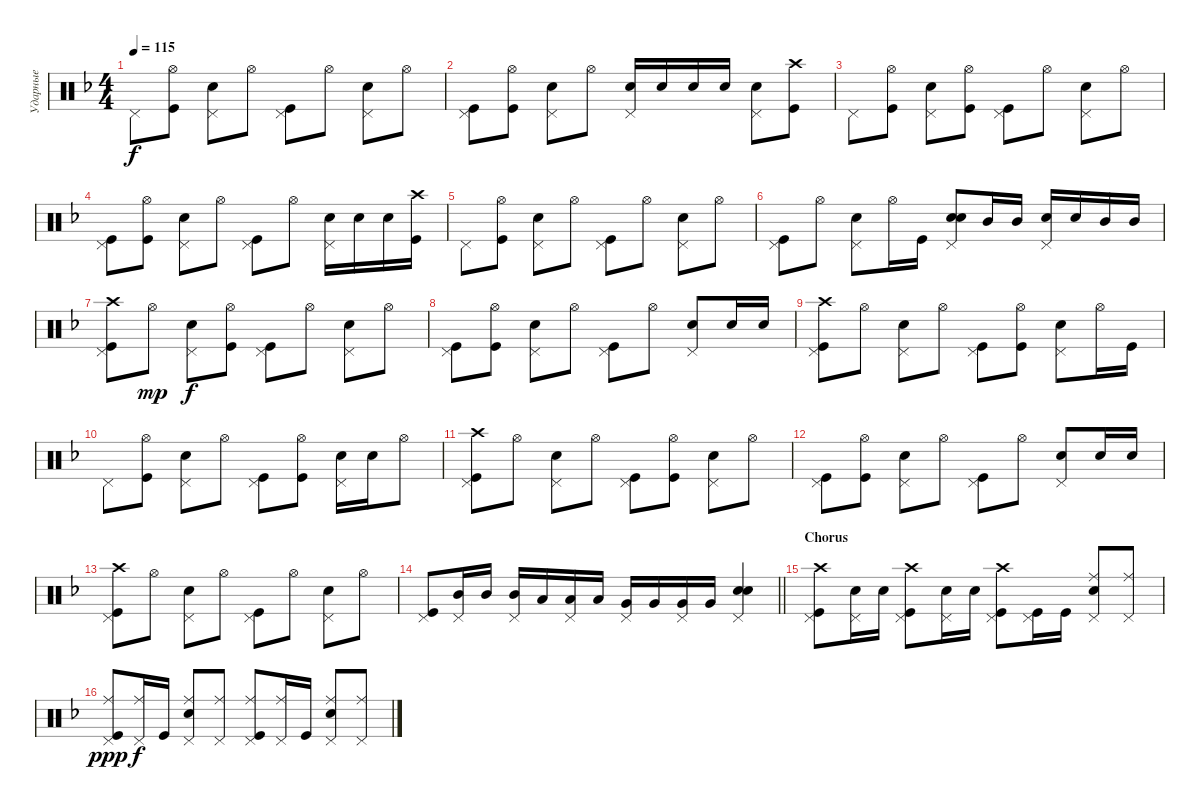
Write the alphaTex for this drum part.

\track ("Ударные" "Ударные") {instrument percussion}
\staff {score}
\articulation defaults
\ts (4 4)
\tempo 115
\clef neutral
\ks dminor "Pedal Hi-Hat (hit)".8{dy f}
("Hi-Hat (open)" "Kick (hit)").8 ("Snare (hit) 2" "Pedal Hi-Hat (hit)").8 "Hi-Hat (open)".8 ("Kick (hit)" "Pedal Hi-Hat (hit)").8 "Hi-Hat (open)".8 ("Snare (hit) 2" "Pedal Hi-Hat (hit)").8 "Hi-Hat (open)".8 |
("Kick (hit)" "Pedal Hi-Hat (hit)").8 ("Kick (hit)" "Hi-Hat (open)").8 ("Snare (hit) 2" "Pedal Hi-Hat (hit)").8 "Hi-Hat (open)".8 ("Snare (hit) 2" "Pedal Hi-Hat (hit)").16 "Snare (hit) 2".16 "Snare (hit) 2".16 "Snare (hit) 2".16 ("Snare (hit) 2" "Pedal Hi-Hat (hit)").8 ("Kick (hit)" "Crash high (hit)").8 |
"Pedal Hi-Hat (hit)".8 ("Kick (hit)" "Hi-Hat (open)").8 ("Snare (hit) 2" "Pedal Hi-Hat (hit)").8 ("Hi-Hat (open)" "Kick (hit)").8 ("Kick (hit)" "Pedal Hi-Hat (hit)").8 "Hi-Hat (open)".8 ("Snare (hit) 2" "Pedal Hi-Hat (hit)").8 "Hi-Hat (open)".8 |
("Kick (hit)" "Pedal Hi-Hat (hit)").8 ("Hi-Hat (open)" "Kick (hit)").8 ("Snare (hit) 2" "Pedal Hi-Hat (hit)").8 "Hi-Hat (open)".8 ("Kick (hit)" "Pedal Hi-Hat (hit)").8 "Hi-Hat (open)".8 ("Snare (hit) 2" "Pedal Hi-Hat (hit)").16 "Snare (hit) 2".16 "Snare (hit) 2".16 ("Kick (hit)" "Crash high (hit)").16 |
"Pedal Hi-Hat (hit)".8 ("Hi-Hat (open)" "Kick (hit)").8 ("Snare (hit) 2" "Pedal Hi-Hat (hit)").8 "Hi-Hat (open)".8 ("Kick (hit)" "Pedal Hi-Hat (hit)").8 "Hi-Hat (open)".8 ("Snare (hit) 2" "Pedal Hi-Hat (hit)").8 "Hi-Hat (open)".8 |
("Kick (hit)" "Pedal Hi-Hat (hit)").8 "Hi-Hat (open)".8 ("Snare (hit) 2" "Pedal Hi-Hat (hit)").8 "Hi-Hat (open)".16 "Kick (hit)".16 ("Snare (hit) 2" "Snare (hit) 2" "Pedal Hi-Hat (hit)").8{bd 480} "Mid Tom (hit)".16 "Mid Tom (hit)".16 ("Snare (hit) 2" "Pedal Hi-Hat (hit)").16 "Snare (hit) 2".16 "Mid Tom (hit)".16 "Mid Tom (hit)".16 |
("Kick (hit)" "Crash high (hit)" "Pedal Hi-Hat (hit)").8 "Hi-Hat (open)".8{dy mp} ("Snare (hit) 2" "Pedal Hi-Hat (hit)").8{dy f} ("Hi-Hat (open)" "Kick (hit)").8 ("Kick (hit)" "Pedal Hi-Hat (hit)").8 "Hi-Hat (open)".8 ("Snare (hit) 2" "Pedal Hi-Hat (hit)").8 "Hi-Hat (open)".8 |
("Kick (hit)" "Pedal Hi-Hat (hit)").8 ("Hi-Hat (open)" "Kick (hit)").8 ("Snare (hit) 2" "Pedal Hi-Hat (hit)").8 "Hi-Hat (open)".8 ("Kick (hit)" "Pedal Hi-Hat (hit)").8 "Hi-Hat (open)".8 ("Snare (hit) 2" "Pedal Hi-Hat (hit)").8 "Snare (hit) 2".16 "Snare (hit) 2".16 |
("Kick (hit)" "Crash high (hit)" "Pedal Hi-Hat (hit)").8 "Hi-Hat (open)".8 ("Snare (hit) 2" "Pedal Hi-Hat (hit)").8 "Hi-Hat (open)".8 ("Kick (hit)" "Pedal Hi-Hat (hit)").8 ("Hi-Hat (open)" "Kick (hit)").8 ("Snare (hit) 2" "Pedal Hi-Hat (hit)").8 "Hi-Hat (open)".16 "Kick (hit)".16 |
"Pedal Hi-Hat (hit)".8 ("Hi-Hat (open)" "Kick (hit)").8 ("Snare (hit) 2" "Pedal Hi-Hat (hit)").8 "Hi-Hat (open)".8 ("Kick (hit)" "Pedal Hi-Hat (hit)").8 ("Kick (hit)" "Hi-Hat (open)").8 ("Snare (hit) 2" "Pedal Hi-Hat (hit)").16 "Snare (hit) 2".16 "Hi-Hat (open)".8 |
("Kick (hit)" "Crash high (hit)" "Pedal Hi-Hat (hit)").8 "Hi-Hat (open)".8 ("Snare (hit) 2" "Pedal Hi-Hat (hit)").8 "Hi-Hat (open)".8 ("Kick (hit)" "Pedal Hi-Hat (hit)").8 ("Hi-Hat (open)" "Kick (hit)").8 ("Snare (hit) 2" "Pedal Hi-Hat (hit)").8 "Hi-Hat (open)".8 |
("Kick (hit)" "Pedal Hi-Hat (hit)").8 ("Hi-Hat (open)" "Kick (hit)").8 ("Snare (hit) 2" "Pedal Hi-Hat (hit)").8 "Hi-Hat (open)".8 ("Kick (hit)" "Pedal Hi-Hat (hit)").8 "Hi-Hat (open)".8 ("Snare (hit) 2" "Pedal Hi-Hat (hit)").8 "Snare (hit) 2".16 "Snare (hit) 2".16 |
("Kick (hit)" "Crash high (hit)" "Pedal Hi-Hat (hit)").8 "Hi-Hat (open)".8 ("Snare (hit) 2" "Pedal Hi-Hat (hit)").8 "Hi-Hat (open)".8 ("Kick (hit)" "Pedal Hi-Hat (hit)").8 "Hi-Hat (open)".8 ("Snare (hit) 2" "Pedal Hi-Hat (hit)").8 "Hi-Hat (open)".8 |
\barLineRight lightlight
("Kick (hit)" "Pedal Hi-Hat (hit)").8 ("Pedal Hi-Hat (hit)" "Mid Tom (hit)").16 "Mid Tom (hit)".16 ("Mid Tom (hit)" "Pedal Hi-Hat (hit)").16 "Low Tom (hit)".16 ("Low Tom (hit)" "Pedal Hi-Hat (hit)").16 "Low Tom (hit)".16 ("Pedal Hi-Hat (hit)" "Very Low Tom (hit)").16 "Very Low Tom (hit)".16 ("Pedal Hi-Hat (hit)" "Very Low Tom (hit)").16{bd 60} "Very Low Tom (hit)".16 ("Snare (hit) 2" "Snare (hit) 2" "Pedal Hi-Hat (hit)").4{bd 240} |
\section ("" "Chorus")
("Kick (hit)" "Crash high (hit)" "Pedal Hi-Hat (hit)").8 ("Snare (hit) 2" "Pedal Hi-Hat (hit)").16 "Snare (hit) 2".16 ("Kick (hit)" "Crash high (hit)" "Pedal Hi-Hat (hit)").8 ("Snare (hit) 2" "Pedal Hi-Hat (hit)").16 "Snare (hit) 2".16 ("Kick (hit)" "Crash high (hit)" "Pedal Hi-Hat (hit)").8 ("Pedal Hi-Hat (hit)" "Kick (hit)").16 "Kick (hit)".16 ("Snare (hit) 2" "Pedal Hi-Hat (hit)" "Ride (middle)").8 ("Pedal Hi-Hat (hit)" "Ride (middle)").8 |
("Kick (hit)" "Pedal Hi-Hat (hit)" "Ride (middle)").8{dy ppp} ("Ride (middle)" "Pedal Hi-Hat (hit)").16{dy f} "Kick (hit)".16 ("Pedal Hi-Hat (hit)" "Snare (hit) 2" "Ride (middle)").8 ("Ride (middle)" "Pedal Hi-Hat (hit)").8 ("Pedal Hi-Hat (hit)" "Kick (hit)" "Ride (middle)").8 ("Ride (middle)" "Pedal Hi-Hat (hit)").16 "Kick (hit)".16 ("Pedal Hi-Hat (hit)" "Snare (hit) 2" "Ride (middle)").8 ("Pedal Hi-Hat (hit)" "Ride (middle)").8
